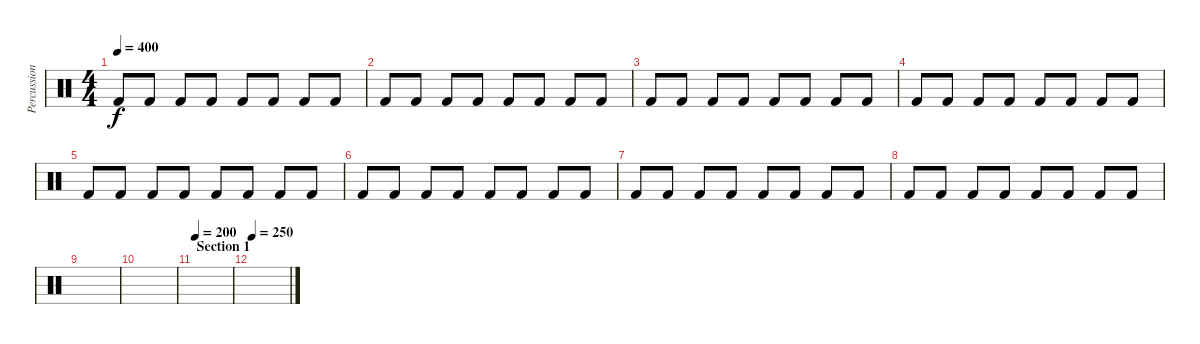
\track ("Percussions3" "Percussion") {instrument percussion}
\staff {score}
\articulation defaults
\ts (4 4)
\tempo 400
\clef neutral
\ks c "Kick (hit) 2".8{dy f} "Kick (hit) 2".8 "Kick (hit) 2".8 "Kick (hit) 2".8 "Kick (hit) 2".8 "Kick (hit) 2".8 "Kick (hit) 2".8 "Kick (hit) 2".8
|
"Kick (hit) 2".8 "Kick (hit) 2".8 "Kick (hit) 2".8 "Kick (hit) 2".8 "Kick (hit) 2".8 "Kick (hit) 2".8 "Kick (hit) 2".8 "Kick (hit) 2".8 |
"Kick (hit) 2".8 "Kick (hit) 2".8 "Kick (hit) 2".8 "Kick (hit) 2".8 "Kick (hit) 2".8 "Kick (hit) 2".8 "Kick (hit) 2".8 "Kick (hit) 2".8 |
"Kick (hit) 2".8 "Kick (hit) 2".8 "Kick (hit) 2".8 "Kick (hit) 2".8 "Kick (hit) 2".8 "Kick (hit) 2".8 "Kick (hit) 2".8 "Kick (hit) 2".8 |
"Kick (hit) 2".8 "Kick (hit) 2".8 "Kick (hit) 2".8 "Kick (hit) 2".8 "Kick (hit) 2".8 "Kick (hit) 2".8 "Kick (hit) 2".8 "Kick (hit) 2".8 |
"Kick (hit) 2".8 "Kick (hit) 2".8 "Kick (hit) 2".8 "Kick (hit) 2".8 "Kick (hit) 2".8 "Kick (hit) 2".8 "Kick (hit) 2".8 "Kick (hit) 2".8 |
"Kick (hit) 2".8 "Kick (hit) 2".8 "Kick (hit) 2".8 "Kick (hit) 2".8 "Kick (hit) 2".8 "Kick (hit) 2".8 "Kick (hit) 2".8 "Kick (hit) 2".8 |
"Kick (hit) 2".8 "Kick (hit) 2".8 "Kick (hit) 2".8 "Kick (hit) 2".8 "Kick (hit) 2".8 "Kick (hit) 2".8 "Kick (hit) 2".8 "Kick (hit) 2".8 |
|
|
\section ("" "Section 1")
\tempo 200
|
\tempo 250
